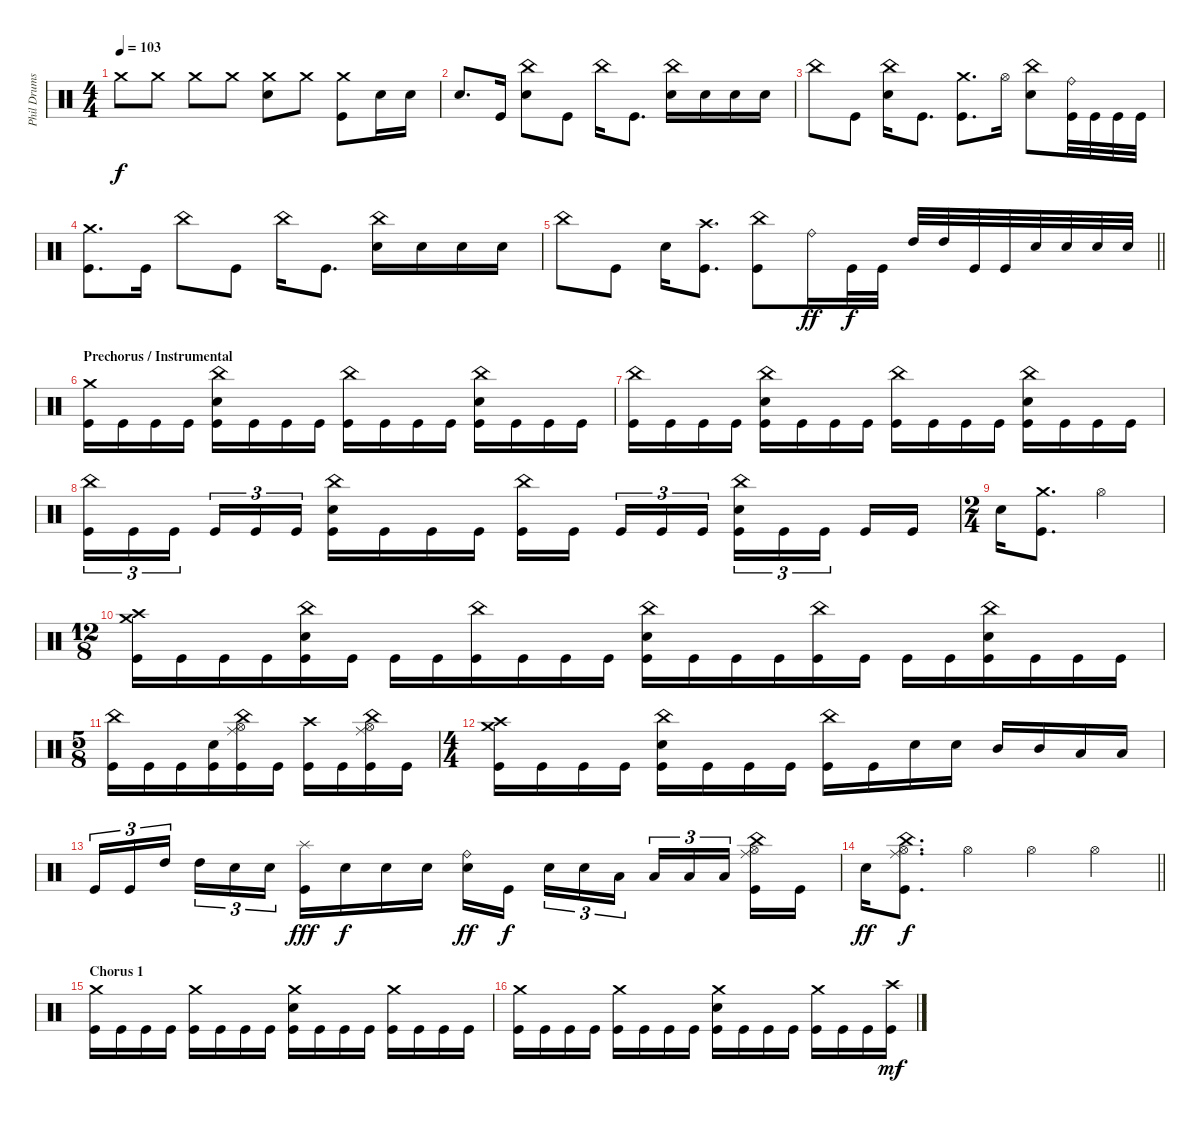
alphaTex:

\track ("Phil Drums" "Phil Drums") {instrument percussion}
\staff {score}
\articulation defaults
\ts (4 4)
\tempo 103
\clef neutral
\ks c "Crash medium (hit)".8{dy f} "Crash medium (hit)".8 "Crash medium (hit)".8 "Crash medium (hit)".8
("Crash medium (hit)" "Snare (hit) 2").8 "Crash medium (hit)".8 ("Crash medium (hit)" "Kick (hit)").8 "Snare (hit) 2".16 "Snare (hit) 2".16 |
"Snare (hit) 2".8{d} "Kick (hit)".16 ("China (hit)" "Snare (hit) 2").8 "Kick (hit)".8 "China (hit)".16 "Kick (hit)".8{d} ("China (hit)" "Snare (hit) 2").16 "Snare (hit) 2".16 "Snare (hit) 2".16 "Snare (hit) 2".16 |
"China (hit)".8 "Kick (hit)".8 ("Snare (hit) 2" "China (hit)").16 "Kick (hit)".8{d} ("Crash medium (hit)" "Kick (hit)").8{d} "Hi-Hat (open)".16 ("China (hit)" "Snare (hit) 2").8 ("Ride (bell)" "Kick (hit)").32 "Kick (hit)".32 "Kick (hit)".32 "Kick (hit)".32 |
("Crash medium (hit)" "Kick (hit)").8{d} "Kick (hit)".16 "China (hit)".8 "Kick (hit)".8 "China (hit)".16 "Kick (hit)".8{d} ("China (hit)" "Snare (hit) 2").16 "Snare (hit) 2".16 "Snare (hit) 2".16 "Snare (hit) 2".16 |
\barLineRight lightlight "China (hit)".8 "Kick (hit)".8 "Snare (hit) 2".16
("Crash high (hit)" "Kick (hit)").8{d} ("China (hit)" "Kick (hit)").8 "Ride (bell)".16{dy ff} "Kick (hit)".32{dy f} "Kick (hit)".32 "High Tom (hit)".32 "High Tom (hit)".32 "Kick (hit)".32 "Kick (hit)".32 "Snare (hit) 2".32 "Snare (hit) 2".32 "Snare (hit) 2".32 "Snare (hit) 2".32 |
\section ("" "Prechorus / Instrumental")
("Crash medium (hit)" "Kick (hit)").16 "Kick (hit)".16 "Kick (hit)".16 "Kick (hit)".16 ("China (hit)" "Snare (hit) 2" "Kick (hit)").16 "Kick (hit)".16 "Kick (hit)".16 "Kick (hit)".16 ("China (hit)" "Kick (hit)").16 "Kick (hit)".16 "Kick (hit)".16 "Kick (hit)".16 ("China (hit)" "Snare (hit) 2" "Kick (hit)").16 "Kick (hit)".16 "Kick (hit)".16 "Kick (hit)".16 |
("China (hit)" "Kick (hit)").16 "Kick (hit)".16 "Kick (hit)".16 "Kick (hit)".16 ("China (hit)" "Snare (hit) 2" "Kick (hit)").16 "Kick (hit)".16 "Kick (hit)".16 "Kick (hit)".16 ("China (hit)" "Kick (hit)").16 "Kick (hit)".16 "Kick (hit)".16 "Kick (hit)".16 ("China (hit)" "Snare (hit) 2" "Kick (hit)").16 "Kick (hit)".16 "Kick (hit)".16 "Kick (hit)".16 |
("China (hit)" "Kick (hit)").16{tu (3 2)} "Kick (hit)".16{tu (3 2)} "Kick (hit)".16{tu (3 2)} "Kick (hit)".16{tu (3 2)} "Kick (hit)".16{tu (3 2)} "Kick (hit)".16{tu (3 2)} ("China (hit)" "Snare (hit) 2" "Kick (hit)").16 "Kick (hit)".16 "Kick (hit)".16 "Kick (hit)".16 ("China (hit)" "Kick (hit)").16 "Kick (hit)".16 "Kick (hit)".16{tu (3 2)} "Kick (hit)".16{tu (3 2)} "Kick (hit)".16{tu (3 2)} ("China (hit)" "Snare (hit) 2" "Kick (hit)").16{tu (3 2)} "Kick (hit)".16{tu (3 2)} "Kick (hit)".16{tu (3 2)} "Kick (hit)".16 "Kick (hit)".16 |
\ts (2 4)
"Snare (hit) 2".16 ("Crash medium (hit)" "Kick (hit)").8{d} "Hi-Hat (open)".4 |
\ts (12 8)
("Crash medium (hit)" "Crash high (hit)" "Kick (hit)").16 "Kick (hit)".16 "Kick (hit)".16 "Kick (hit)".16 ("China (hit)" "Snare (hit) 2" "Kick (hit)").16 "Kick (hit)".16 "Kick (hit)".16 "Kick (hit)".16 ("China (hit)" "Kick (hit)").16 "Kick (hit)".16 "Kick (hit)".16 "Kick (hit)".16 ("China (hit)" "Snare (hit) 2" "Kick (hit)").16 "Kick (hit)".16 "Kick (hit)".16 "Kick (hit)".16 ("China (hit)" "Kick (hit)").16 "Kick (hit)".16 "Kick (hit)".16 "Kick (hit)".16 ("China (hit)" "Snare (hit) 2" "Kick (hit)").16 "Kick (hit)".16 "Kick (hit)".16 "Kick (hit)".16 |
\ts (5 8)
("China (hit)" "Kick (hit)").16 "Kick (hit)".16 "Kick (hit)".16 ("Snare (hit) 2" "Kick (hit)").16 ("China (hit)" "Ride (middle)" "Hi-Hat (open)" "Kick (hit)").16 "Kick (hit)".16 ("Crash high (hit)" "Kick (hit)").16 "Kick (hit)".16 ("China (hit)" "Ride (middle)" "Hi-Hat (open)" "Kick (hit)").16 "Kick (hit)".16 |
\ts (4 4)
("Crash medium (hit)" "Crash high (hit)" "Kick (hit)").16 "Kick (hit)".16 "Kick (hit)".16 "Kick (hit)".16 ("China (hit)" "Snare (hit) 2" "Kick (hit)").16 "Kick (hit)".16 "Kick (hit)".16 "Kick (hit)".16 ("China (hit)" "Kick (hit)").16 "Kick (hit)".16 "Snare (hit) 2".16 "Snare (hit) 2".16 "Mid Tom (hit)".16 "Mid Tom (hit)".16 "Low Tom (hit)".16 "Low Tom (hit)".16 |
"Kick (hit)".16{tu (3 2)} "Kick (hit)".16{tu (3 2)} "High Tom (hit)".16{tu (3 2)} "High Tom (hit)".16{tu (3 2)} "Snare (hit) 2".16{tu (3 2)} "Snare (hit) 2".16{tu (3 2)} ("Splash (hit)" "Kick (hit)").16{dy fff} "Snare (hit) 2".16{dy f} "Snare (hit) 2".16 "Snare (hit) 2".16 ("Ride (bell)" "Snare (hit) 2").16{dy ff} "Kick (hit)".16{dy f} "Snare (hit) 2".16{tu (3 2)} "Snare (hit) 2".16{tu (3 2)} "Low Tom (hit)".16{tu (3 2)} "Low Tom (hit)".16{tu (3 2)} "Low Floor Tom (hit)".16{tu (3 2)} "Low Floor Tom (hit)".16{tu (3 2)} ("China (hit)" "Ride (middle)" "Hi-Hat (open)" "Kick (hit)").16 "Kick (hit)".16 |
\barLineRight lightlight "Snare (hit) 2".16{dy ff}
("China (hit)" "Ride (middle)" "Hi-Hat (open)" "Kick (hit)").8{d dy f} "Hi-Hat (open)".4 "Hi-Hat (open)".4 "Hi-Hat (open)".4 |
\section ("" "Chorus 1")
("Crash medium (hit)" "Kick (hit)").16 "Kick (hit)".16 "Kick (hit)".16 "Kick (hit)".16 ("Crash medium (hit)" "Kick (hit)").16 "Kick (hit)".16 "Kick (hit)".16 "Kick (hit)".16 ("Crash medium (hit)" "Snare (hit) 2" "Kick (hit)").16 "Kick (hit)".16 "Kick (hit)".16 "Kick (hit)".16 ("Crash medium (hit)" "Kick (hit)").16 "Kick (hit)".16 "Kick (hit)".16 "Kick (hit)".16 |
("Crash medium (hit)" "Kick (hit)").16 "Kick (hit)".16 "Kick (hit)".16 "Kick (hit)".16 ("Crash medium (hit)" "Kick (hit)").16 "Kick (hit)".16 "Kick (hit)".16 "Kick (hit)".16 ("Crash medium (hit)" "Snare (hit) 2" "Kick (hit)").16 "Kick (hit)".16 "Kick (hit)".16 "Kick (hit)".16 ("Crash medium (hit)" "Kick (hit)").16 "Kick (hit)".16 "Kick (hit)".16 ("Crash high (hit)" "Kick (hit)").16{dy mf}
